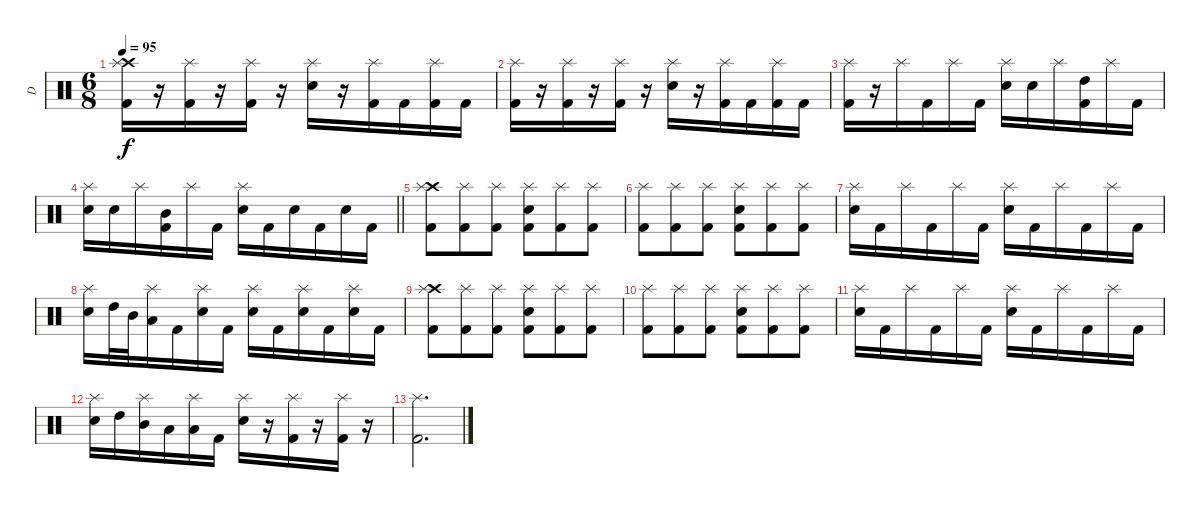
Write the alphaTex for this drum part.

\track ("D" "D") {instrument percussion}
\staff {score}
\articulation defaults
\ts (6 8)
\tempo 95
\clef neutral
\ks c
("Crash high (hit)" "Kick (hit) 2" "Splash (hit)").16{dy f} r.16 ("Kick (hit) 2" "Splash (hit)").16 r.16 ("Kick (hit) 2" "Splash (hit)").16 r.16 ("Electric Snare (hit)" "Splash (hit)").16 r.16 ("Kick (hit) 2" "Splash (hit)").16 "Kick (hit) 2".16 ("Kick (hit) 2" "Splash (hit)").16 "Kick (hit) 2".16 |
("Kick (hit) 2" "Splash (hit)").16 r.16 ("Kick (hit) 2" "Splash (hit)").16 r.16 ("Kick (hit) 2" "Splash (hit)").16 r.16 ("Electric Snare (hit)" "Splash (hit)").16 r.16 ("Kick (hit) 2" "Splash (hit)").16 "Kick (hit) 2".16 ("Kick (hit) 2" "Splash (hit)").16 "Kick (hit) 2".16 |
("Kick (hit) 2" "Splash (hit)").16 r.16 "Splash (hit)".16 "Kick (hit) 2".16 "Splash (hit)".16 "Kick (hit) 2".16 ("Electric Snare (hit)" "Splash (hit)").16 "Electric Snare (hit)".16 "Splash (hit)".16 ("High Tom (hit)" "Kick (hit) 2").16 "Splash (hit)".16 "Kick (hit) 2".16 |
\barLineRight lightlight
("Electric Snare (hit)" "Splash (hit)").16 "Electric Snare (hit)".16 "Splash (hit)".16 ("Mid Tom (hit)" "Kick (hit) 2").16 "Splash (hit)".16 "Kick (hit) 2".16 ("Electric Snare (hit)" "Splash (hit)").16 "Kick (hit) 2".16 "Electric Snare (hit)".16 "Kick (hit) 2".16 "Electric Snare (hit)".16 "Kick (hit) 2".16 |
("Crash high (hit)" "Kick (hit) 2" "Splash (hit)").8 ("Kick (hit) 2" "Splash (hit)").8 ("Kick (hit) 2" "Splash (hit)").8 ("Electric Snare (hit)" "Kick (hit) 2" "Splash (hit)").8 ("Kick (hit) 2" "Splash (hit)").8 ("Kick (hit) 2" "Splash (hit)").8 |
("Kick (hit) 2" "Splash (hit)").8 ("Kick (hit) 2" "Splash (hit)").8 ("Kick (hit) 2" "Splash (hit)").8 ("Electric Snare (hit)" "Kick (hit) 2" "Splash (hit)").8 ("Kick (hit) 2" "Splash (hit)").8 ("Kick (hit) 2" "Splash (hit)").8 |
("Electric Snare (hit)" "Splash (hit)").16 "Kick (hit) 2".16 "Splash (hit)".16 "Kick (hit) 2".16 "Splash (hit)".16 "Kick (hit) 2".16 ("Electric Snare (hit)" "Splash (hit)").16 "Kick (hit) 2".16 "Splash (hit)".16 "Kick (hit) 2".16 "Splash (hit)".16 "Kick (hit) 2".16 |
("Electric Snare (hit)" "Splash (hit)").16 "High Tom (hit)".32 "Mid Tom (hit)".32 ("Low Tom (hit)" "Splash (hit)").16 "Kick (hit) 2".16 ("Electric Snare (hit)" "Splash (hit)").16 "Kick (hit) 2".16 ("Electric Snare (hit)" "Splash (hit)").16 "Kick (hit) 2".16 ("Electric Snare (hit)" "Splash (hit)").16 "Kick (hit) 2".16 ("Electric Snare (hit)" "Splash (hit)").16 "Kick (hit) 2".16 |
("Crash high (hit)" "Kick (hit) 2" "Splash (hit)").8 ("Kick (hit) 2" "Splash (hit)").8 ("Kick (hit) 2" "Splash (hit)").8 ("Electric Snare (hit)" "Kick (hit) 2" "Splash (hit)").8 ("Kick (hit) 2" "Splash (hit)").8 ("Kick (hit) 2" "Splash (hit)").8 |
("Kick (hit) 2" "Splash (hit)").8 ("Kick (hit) 2" "Splash (hit)").8 ("Kick (hit) 2" "Splash (hit)").8 ("Electric Snare (hit)" "Kick (hit) 2" "Splash (hit)").8 ("Kick (hit) 2" "Splash (hit)").8 ("Kick (hit) 2" "Splash (hit)").8 |
("Electric Snare (hit)" "Splash (hit)").16 "Kick (hit) 2".16 "Splash (hit)".16 "Kick (hit) 2".16 "Splash (hit)".16 "Kick (hit) 2".16 ("Electric Snare (hit)" "Splash (hit)").16 "Kick (hit) 2".16 "Splash (hit)".16 "Kick (hit) 2".16 "Splash (hit)".16 "Kick (hit) 2".16 |
("Electric Snare (hit)" "Splash (hit)").16 "High Tom (hit)".16 ("Mid Tom (hit)" "Splash (hit)").16 "Low Tom (hit)".16 ("Low Tom (hit)" "Splash (hit)").16 "Kick (hit) 2".16 ("Electric Snare (hit)" "Splash (hit)").16 r.16 ("Kick (hit) 2" "Splash (hit)").16 r.16 ("Kick (hit) 2" "Splash (hit)").16 r.16 |
("Splash (hit)" "Kick (hit) 2").2{d}
